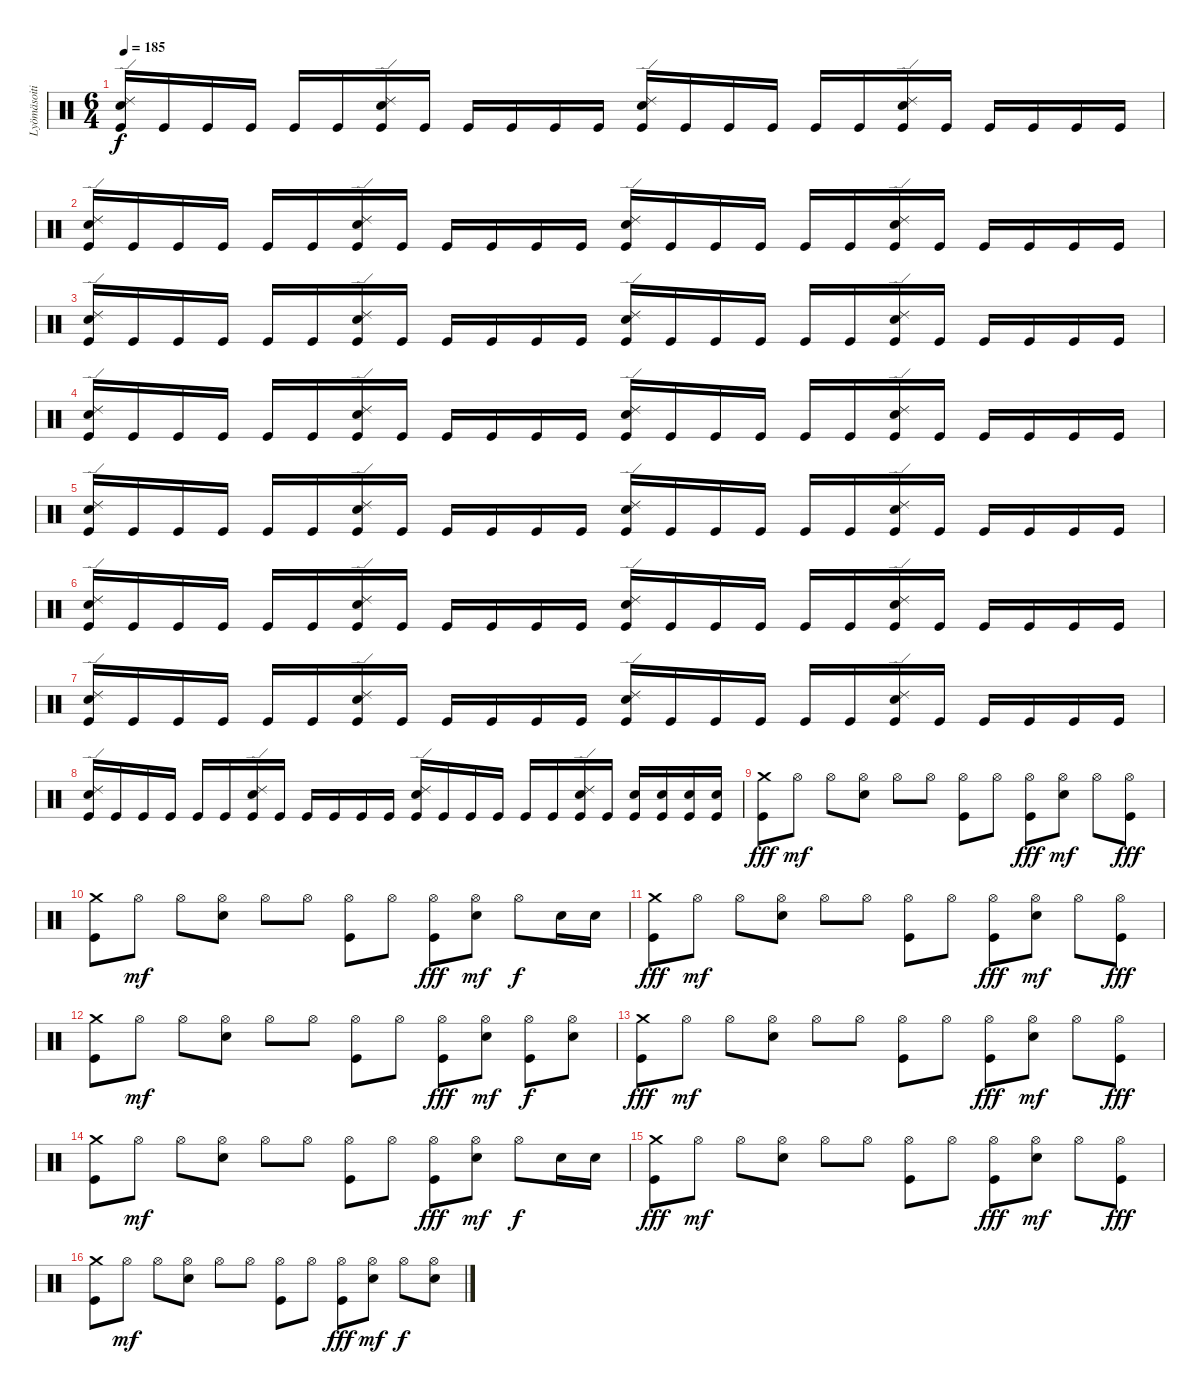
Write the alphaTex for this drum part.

\track ("Lyömäsoitin" "Lyömäsoiti") {instrument percussion}
\staff {score}
\articulation defaults
\ts (6 4)
\tempo 185
\clef neutral
\ks c
("Ride (edge) 2" "Electric Snare (hit)" "Kick (hit)").16{dy f} "Kick (hit)".16 "Kick (hit)".16 "Kick (hit)".16 "Kick (hit)".16 "Kick (hit)".16 ("Electric Snare (hit)" "Ride (edge) 2" "Kick (hit)").16 "Kick (hit)".16 "Kick (hit)".16 "Kick (hit)".16 "Kick (hit)".16 "Kick (hit)".16 ("Ride (edge) 2" "Electric Snare (hit)" "Kick (hit)").16 "Kick (hit)".16 "Kick (hit)".16 "Kick (hit)".16 "Kick (hit)".16 "Kick (hit)".16 ("Electric Snare (hit)" "Ride (edge) 2" "Kick (hit)").16 "Kick (hit)".16 "Kick (hit)".16 "Kick (hit)".16 "Kick (hit)".16 "Kick (hit)".16 |
("Ride (edge) 2" "Electric Snare (hit)" "Kick (hit)").16 "Kick (hit)".16 "Kick (hit)".16 "Kick (hit)".16 "Kick (hit)".16 "Kick (hit)".16 ("Electric Snare (hit)" "Ride (edge) 2" "Kick (hit)").16 "Kick (hit)".16 "Kick (hit)".16 "Kick (hit)".16 "Kick (hit)".16 "Kick (hit)".16 ("Ride (edge) 2" "Electric Snare (hit)" "Kick (hit)").16 "Kick (hit)".16 "Kick (hit)".16 "Kick (hit)".16 "Kick (hit)".16 "Kick (hit)".16 ("Electric Snare (hit)" "Ride (edge) 2" "Kick (hit)").16 "Kick (hit)".16 "Kick (hit)".16 "Kick (hit)".16 "Kick (hit)".16 "Kick (hit)".16 |
("Ride (edge) 2" "Electric Snare (hit)" "Kick (hit)").16 "Kick (hit)".16 "Kick (hit)".16 "Kick (hit)".16 "Kick (hit)".16 "Kick (hit)".16 ("Electric Snare (hit)" "Ride (edge) 2" "Kick (hit)").16 "Kick (hit)".16 "Kick (hit)".16 "Kick (hit)".16 "Kick (hit)".16 "Kick (hit)".16 ("Ride (edge) 2" "Electric Snare (hit)" "Kick (hit)").16 "Kick (hit)".16 "Kick (hit)".16 "Kick (hit)".16 "Kick (hit)".16 "Kick (hit)".16 ("Electric Snare (hit)" "Ride (edge) 2" "Kick (hit)").16 "Kick (hit)".16 "Kick (hit)".16 "Kick (hit)".16 "Kick (hit)".16 "Kick (hit)".16 |
("Ride (edge) 2" "Electric Snare (hit)" "Kick (hit)").16 "Kick (hit)".16 "Kick (hit)".16 "Kick (hit)".16 "Kick (hit)".16 "Kick (hit)".16 ("Electric Snare (hit)" "Ride (edge) 2" "Kick (hit)").16 "Kick (hit)".16 "Kick (hit)".16 "Kick (hit)".16 "Kick (hit)".16 "Kick (hit)".16 ("Ride (edge) 2" "Electric Snare (hit)" "Kick (hit)").16 "Kick (hit)".16 "Kick (hit)".16 "Kick (hit)".16 "Kick (hit)".16 "Kick (hit)".16 ("Electric Snare (hit)" "Ride (edge) 2" "Kick (hit)").16 "Kick (hit)".16 "Kick (hit)".16 "Kick (hit)".16 "Kick (hit)".16 "Kick (hit)".16 |
("Ride (edge) 2" "Electric Snare (hit)" "Kick (hit)").16 "Kick (hit)".16 "Kick (hit)".16 "Kick (hit)".16 "Kick (hit)".16 "Kick (hit)".16 ("Electric Snare (hit)" "Ride (edge) 2" "Kick (hit)").16 "Kick (hit)".16 "Kick (hit)".16 "Kick (hit)".16 "Kick (hit)".16 "Kick (hit)".16 ("Ride (edge) 2" "Electric Snare (hit)" "Kick (hit)").16 "Kick (hit)".16 "Kick (hit)".16 "Kick (hit)".16 "Kick (hit)".16 "Kick (hit)".16 ("Electric Snare (hit)" "Ride (edge) 2" "Kick (hit)").16 "Kick (hit)".16 "Kick (hit)".16 "Kick (hit)".16 "Kick (hit)".16 "Kick (hit)".16 |
("Ride (edge) 2" "Electric Snare (hit)" "Kick (hit)").16 "Kick (hit)".16 "Kick (hit)".16 "Kick (hit)".16 "Kick (hit)".16 "Kick (hit)".16 ("Electric Snare (hit)" "Ride (edge) 2" "Kick (hit)").16 "Kick (hit)".16 "Kick (hit)".16 "Kick (hit)".16 "Kick (hit)".16 "Kick (hit)".16 ("Ride (edge) 2" "Electric Snare (hit)" "Kick (hit)").16 "Kick (hit)".16 "Kick (hit)".16 "Kick (hit)".16 "Kick (hit)".16 "Kick (hit)".16 ("Electric Snare (hit)" "Ride (edge) 2" "Kick (hit)").16 "Kick (hit)".16 "Kick (hit)".16 "Kick (hit)".16 "Kick (hit)".16 "Kick (hit)".16 |
("Ride (edge) 2" "Electric Snare (hit)" "Kick (hit)").16 "Kick (hit)".16 "Kick (hit)".16 "Kick (hit)".16 "Kick (hit)".16 "Kick (hit)".16 ("Electric Snare (hit)" "Ride (edge) 2" "Kick (hit)").16 "Kick (hit)".16 "Kick (hit)".16 "Kick (hit)".16 "Kick (hit)".16 "Kick (hit)".16 ("Ride (edge) 2" "Electric Snare (hit)" "Kick (hit)").16 "Kick (hit)".16 "Kick (hit)".16 "Kick (hit)".16 "Kick (hit)".16 "Kick (hit)".16 ("Electric Snare (hit)" "Ride (edge) 2" "Kick (hit)").16 "Kick (hit)".16 "Kick (hit)".16 "Kick (hit)".16 "Kick (hit)".16 "Kick (hit)".16 |
("Ride (edge) 2" "Electric Snare (hit)" "Kick (hit)").16 "Kick (hit)".16 "Kick (hit)".16 "Kick (hit)".16 "Kick (hit)".16 "Kick (hit)".16 ("Electric Snare (hit)" "Ride (edge) 2" "Kick (hit)").16 "Kick (hit)".16 "Kick (hit)".16 "Kick (hit)".16 "Kick (hit)".16 "Kick (hit)".16 ("Ride (edge) 2" "Electric Snare (hit)" "Kick (hit)").16 "Kick (hit)".16 "Kick (hit)".16 "Kick (hit)".16 "Kick (hit)".16 "Kick (hit)".16 ("Electric Snare (hit)" "Ride (edge) 2" "Kick (hit)").16 "Kick (hit)".16 ("Electric Snare (hit)" "Kick (hit)").16 ("Electric Snare (hit)" "Kick (hit)").16 ("Electric Snare (hit)" "Kick (hit)").16 ("Electric Snare (hit)" "Kick (hit)").16 |
("Crash medium (hit)" "Kick (hit)").8{dy fff} "Hi-Hat (open)".8{dy mf} "Hi-Hat (open)".8 ("Hi-Hat (open)" "Electric Snare (hit)").8 "Hi-Hat (open)".8 "Hi-Hat (open)".8 ("Hi-Hat (open)" "Kick (hit)").8 "Hi-Hat (open)".8 ("Hi-Hat (open)" "Kick (hit)").8{dy fff} ("Hi-Hat (open)" "Electric Snare (hit)").8{dy mf} "Hi-Hat (open)".8 ("Hi-Hat (open)" "Kick (hit)").8{dy fff} |
("Crash medium (hit)" "Kick (hit)").8 "Hi-Hat (open)".8{dy mf} "Hi-Hat (open)".8 ("Hi-Hat (open)" "Electric Snare (hit)").8 "Hi-Hat (open)".8 "Hi-Hat (open)".8 ("Hi-Hat (open)" "Kick (hit)").8 "Hi-Hat (open)".8 ("Hi-Hat (open)" "Kick (hit)").8{dy fff} ("Hi-Hat (open)" "Electric Snare (hit)").8{dy mf} "Hi-Hat (open)".8{dy f} "Electric Snare (hit)".16 "Electric Snare (hit)".16 |
("Crash medium (hit)" "Kick (hit)").8{dy fff} "Hi-Hat (open)".8{dy mf} "Hi-Hat (open)".8 ("Hi-Hat (open)" "Electric Snare (hit)").8 "Hi-Hat (open)".8 "Hi-Hat (open)".8 ("Hi-Hat (open)" "Kick (hit)").8 "Hi-Hat (open)".8 ("Hi-Hat (open)" "Kick (hit)").8{dy fff} ("Hi-Hat (open)" "Electric Snare (hit)").8{dy mf} "Hi-Hat (open)".8 ("Hi-Hat (open)" "Kick (hit)").8{dy fff} |
("Crash medium (hit)" "Kick (hit)").8 "Hi-Hat (open)".8{dy mf} "Hi-Hat (open)".8 ("Hi-Hat (open)" "Electric Snare (hit)").8 "Hi-Hat (open)".8 "Hi-Hat (open)".8 ("Hi-Hat (open)" "Kick (hit)").8 "Hi-Hat (open)".8 ("Hi-Hat (open)" "Kick (hit)").8{dy fff} ("Hi-Hat (open)" "Electric Snare (hit)").8{dy mf} ("Hi-Hat (open)" "Kick (hit)").8{dy f} ("Hi-Hat (open)" "Electric Snare (hit)").8 |
("Crash medium (hit)" "Kick (hit)").8{dy fff} "Hi-Hat (open)".8{dy mf} "Hi-Hat (open)".8 ("Hi-Hat (open)" "Electric Snare (hit)").8 "Hi-Hat (open)".8 "Hi-Hat (open)".8 ("Hi-Hat (open)" "Kick (hit)").8 "Hi-Hat (open)".8 ("Hi-Hat (open)" "Kick (hit)").8{dy fff} ("Hi-Hat (open)" "Electric Snare (hit)").8{dy mf} "Hi-Hat (open)".8 ("Hi-Hat (open)" "Kick (hit)").8{dy fff} |
("Crash medium (hit)" "Kick (hit)").8 "Hi-Hat (open)".8{dy mf} "Hi-Hat (open)".8 ("Hi-Hat (open)" "Electric Snare (hit)").8 "Hi-Hat (open)".8 "Hi-Hat (open)".8 ("Hi-Hat (open)" "Kick (hit)").8 "Hi-Hat (open)".8 ("Hi-Hat (open)" "Kick (hit)").8{dy fff} ("Hi-Hat (open)" "Electric Snare (hit)").8{dy mf} "Hi-Hat (open)".8{dy f} "Electric Snare (hit)".16 "Electric Snare (hit)".16 |
("Crash medium (hit)" "Kick (hit)").8{dy fff} "Hi-Hat (open)".8{dy mf} "Hi-Hat (open)".8 ("Hi-Hat (open)" "Electric Snare (hit)").8 "Hi-Hat (open)".8 "Hi-Hat (open)".8 ("Hi-Hat (open)" "Kick (hit)").8 "Hi-Hat (open)".8 ("Hi-Hat (open)" "Kick (hit)").8{dy fff} ("Hi-Hat (open)" "Electric Snare (hit)").8{dy mf} "Hi-Hat (open)".8 ("Hi-Hat (open)" "Kick (hit)").8{dy fff} |
("Crash medium (hit)" "Kick (hit)").8 "Hi-Hat (open)".8{dy mf} "Hi-Hat (open)".8 ("Hi-Hat (open)" "Electric Snare (hit)").8 "Hi-Hat (open)".8 "Hi-Hat (open)".8 ("Hi-Hat (open)" "Kick (hit)").8 "Hi-Hat (open)".8 ("Hi-Hat (open)" "Kick (hit)").8{dy fff} ("Hi-Hat (open)" "Electric Snare (hit)").8{dy mf} "Hi-Hat (open)".8{dy f} ("Hi-Hat (open)" "Electric Snare (hit)").8
